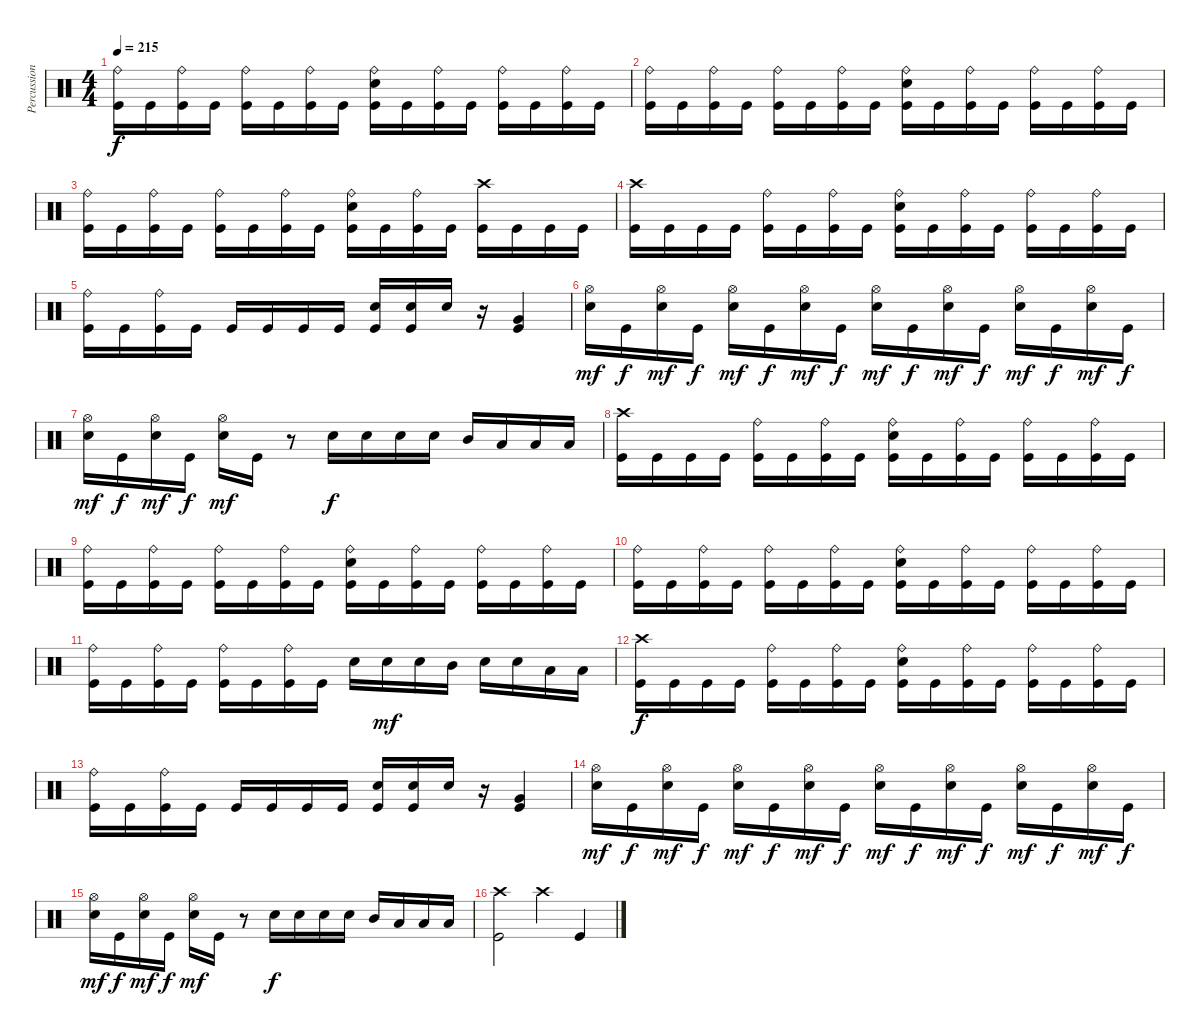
\track ("Percussion" "Percussion") {instrument percussion}
\staff {score}
\articulation defaults
\ts (4 4)
\tempo 215
\clef neutral
\ks c
("Ride (bell)" "Kick (hit)").16{dy f} "Kick (hit)".16 ("Ride (bell)" "Kick (hit)").16 "Kick (hit)".16 ("Ride (bell)" "Kick (hit)").16 "Kick (hit)".16 ("Ride (bell)" "Kick (hit)").16 "Kick (hit)".16 ("Ride (bell)" "Electric Snare (hit)" "Kick (hit)").16 "Kick (hit)".16 ("Ride (bell)" "Kick (hit)").16 "Kick (hit)".16 ("Ride (bell)" "Kick (hit)").16 "Kick (hit)".16 ("Ride (bell)" "Kick (hit)").16 "Kick (hit)".16 |
("Ride (bell)" "Kick (hit)").16 "Kick (hit)".16 ("Ride (bell)" "Kick (hit)").16 "Kick (hit)".16 ("Ride (bell)" "Kick (hit)").16 "Kick (hit)".16 ("Ride (bell)" "Kick (hit)").16 "Kick (hit)".16 ("Ride (bell)" "Electric Snare (hit)" "Kick (hit)").16 "Kick (hit)".16 ("Ride (bell)" "Kick (hit)").16 "Kick (hit)".16 ("Ride (bell)" "Kick (hit)").16 "Kick (hit)".16 ("Ride (bell)" "Kick (hit)").16 "Kick (hit)".16 |
("Ride (bell)" "Kick (hit)").16 "Kick (hit)".16 ("Ride (bell)" "Kick (hit)").16 "Kick (hit)".16 ("Ride (bell)" "Kick (hit)").16 "Kick (hit)".16 ("Ride (bell)" "Kick (hit)").16 "Kick (hit)".16 ("Ride (bell)" "Electric Snare (hit)" "Kick (hit)").16 "Kick (hit)".16 ("Ride (bell)" "Kick (hit)").16 "Kick (hit)".16 ("Crash high (hit)" "Kick (hit)").16 "Kick (hit)".16 "Kick (hit)".16 "Kick (hit)".16 |
("Crash high (hit)" "Kick (hit)").16 "Kick (hit)".16 "Kick (hit)".16 "Kick (hit)".16 ("Ride (bell)" "Kick (hit)").16 "Kick (hit)".16 ("Ride (bell)" "Kick (hit)").16 "Kick (hit)".16 ("Ride (bell)" "Electric Snare (hit)" "Kick (hit)").16 "Kick (hit)".16 ("Ride (bell)" "Kick (hit)").16 "Kick (hit)".16 ("Ride (bell)" "Kick (hit)").16 "Kick (hit)".16 ("Ride (bell)" "Kick (hit)").16 "Kick (hit)".16 |
("Ride (bell)" "Kick (hit)").16 "Kick (hit)".16 ("Ride (bell)" "Kick (hit)").16 "Kick (hit)".16 "Kick (hit)".16 "Kick (hit)".16 "Kick (hit)".16 "Kick (hit)".16 ("Electric Snare (hit)" "Kick (hit)").16 ("Electric Snare (hit)" "Kick (hit)").16 "Electric Snare (hit)".16 r.16 ("Very Low Tom (hit)" "Kick (hit)").4 |
("Hi-Hat (open)" "Electric Snare (hit)").16{dy mf} "Kick (hit)".16{dy f} ("Hi-Hat (open)" "Electric Snare (hit)").16{dy mf} "Kick (hit)".16{dy f} ("Hi-Hat (open)" "Electric Snare (hit)").16{dy mf} "Kick (hit)".16{dy f} ("Hi-Hat (open)" "Electric Snare (hit)").16{dy mf} "Kick (hit)".16{dy f} ("Hi-Hat (open)" "Electric Snare (hit)").16{dy mf} "Kick (hit)".16{dy f} ("Hi-Hat (open)" "Electric Snare (hit)").16{dy mf} "Kick (hit)".16{dy f} ("Hi-Hat (open)" "Electric Snare (hit)").16{dy mf} "Kick (hit)".16{dy f} ("Hi-Hat (open)" "Electric Snare (hit)").16{dy mf} "Kick (hit)".16{dy f} |
("Hi-Hat (open)" "Electric Snare (hit)").16{dy mf} "Kick (hit)".16{dy f} ("Hi-Hat (open)" "Electric Snare (hit)").16{dy mf} "Kick (hit)".16{dy f} ("Hi-Hat (open)" "Electric Snare (hit)").16{dy mf} "Kick (hit)".16 r.8 "Electric Snare (hit)".16{dy f} "Electric Snare (hit)".16 "Electric Snare (hit)".16 "Electric Snare (hit)".16 "Mid Tom (hit)".16 "Low Tom (hit)".16 "Low Floor Tom (hit)".16 "Low Floor Tom (hit)".16 |
("Crash high (hit)" "Kick (hit)").16 "Kick (hit)".16 "Kick (hit)".16 "Kick (hit)".16 ("Ride (bell)" "Kick (hit)").16 "Kick (hit)".16 ("Ride (bell)" "Kick (hit)").16 "Kick (hit)".16 ("Ride (bell)" "Electric Snare (hit)" "Kick (hit)").16 "Kick (hit)".16 ("Ride (bell)" "Kick (hit)").16 "Kick (hit)".16 ("Ride (bell)" "Kick (hit)").16 "Kick (hit)".16 ("Ride (bell)" "Kick (hit)").16 "Kick (hit)".16 |
("Ride (bell)" "Kick (hit)").16 "Kick (hit)".16 ("Ride (bell)" "Kick (hit)").16 "Kick (hit)".16 ("Ride (bell)" "Kick (hit)").16 "Kick (hit)".16 ("Ride (bell)" "Kick (hit)").16 "Kick (hit)".16 ("Ride (bell)" "Electric Snare (hit)" "Kick (hit)").16 "Kick (hit)".16 ("Ride (bell)" "Kick (hit)").16 "Kick (hit)".16 ("Ride (bell)" "Kick (hit)").16 "Kick (hit)".16 ("Ride (bell)" "Kick (hit)").16 "Kick (hit)".16 |
("Ride (bell)" "Kick (hit)").16 "Kick (hit)".16 ("Ride (bell)" "Kick (hit)").16 "Kick (hit)".16 ("Ride (bell)" "Kick (hit)").16 "Kick (hit)".16 ("Ride (bell)" "Kick (hit)").16 "Kick (hit)".16 ("Ride (bell)" "Electric Snare (hit)" "Kick (hit)").16 "Kick (hit)".16 ("Ride (bell)" "Kick (hit)").16 "Kick (hit)".16 ("Ride (bell)" "Kick (hit)").16 "Kick (hit)".16 ("Ride (bell)" "Kick (hit)").16 "Kick (hit)".16 |
("Ride (bell)" "Kick (hit)").16 "Kick (hit)".16 ("Ride (bell)" "Kick (hit)").16 "Kick (hit)".16 ("Ride (bell)" "Kick (hit)").16 "Kick (hit)".16 ("Ride (bell)" "Kick (hit)").16 "Kick (hit)".16 "Electric Snare (hit)".16 "Electric Snare (hit)".16{dy mf} "Electric Snare (hit)".16 "Mid Tom (hit)".16 "Electric Snare (hit)".16 "Electric Snare (hit)".16 "Low Floor Tom (hit)".16 "Low Floor Tom (hit)".16 |
("Crash high (hit)" "Kick (hit)").16{dy f} "Kick (hit)".16 "Kick (hit)".16 "Kick (hit)".16 ("Ride (bell)" "Kick (hit)").16 "Kick (hit)".16 ("Ride (bell)" "Kick (hit)").16 "Kick (hit)".16 ("Ride (bell)" "Electric Snare (hit)" "Kick (hit)").16 "Kick (hit)".16 ("Ride (bell)" "Kick (hit)").16 "Kick (hit)".16 ("Ride (bell)" "Kick (hit)").16 "Kick (hit)".16 ("Ride (bell)" "Kick (hit)").16 "Kick (hit)".16 |
("Ride (bell)" "Kick (hit)").16 "Kick (hit)".16 ("Ride (bell)" "Kick (hit)").16 "Kick (hit)".16 "Kick (hit)".16 "Kick (hit)".16 "Kick (hit)".16 "Kick (hit)".16 ("Electric Snare (hit)" "Kick (hit)").16 ("Electric Snare (hit)" "Kick (hit)").16 "Electric Snare (hit)".16 r.16 ("Very Low Tom (hit)" "Kick (hit)").4 |
("Hi-Hat (open)" "Electric Snare (hit)").16{dy mf} "Kick (hit)".16{dy f} ("Hi-Hat (open)" "Electric Snare (hit)").16{dy mf} "Kick (hit)".16{dy f} ("Hi-Hat (open)" "Electric Snare (hit)").16{dy mf} "Kick (hit)".16{dy f} ("Hi-Hat (open)" "Electric Snare (hit)").16{dy mf} "Kick (hit)".16{dy f} ("Hi-Hat (open)" "Electric Snare (hit)").16{dy mf} "Kick (hit)".16{dy f} ("Hi-Hat (open)" "Electric Snare (hit)").16{dy mf} "Kick (hit)".16{dy f} ("Hi-Hat (open)" "Electric Snare (hit)").16{dy mf} "Kick (hit)".16{dy f} ("Hi-Hat (open)" "Electric Snare (hit)").16{dy mf} "Kick (hit)".16{dy f} |
("Hi-Hat (open)" "Electric Snare (hit)").16{dy mf} "Kick (hit)".16{dy f} ("Hi-Hat (open)" "Electric Snare (hit)").16{dy mf} "Kick (hit)".16{dy f} ("Hi-Hat (open)" "Electric Snare (hit)").16{dy mf} "Kick (hit)".16 r.8 "Electric Snare (hit)".16{dy f} "Electric Snare (hit)".16 "Electric Snare (hit)".16 "Electric Snare (hit)".16 "Mid Tom (hit)".16 "Low Tom (hit)".16 "Low Floor Tom (hit)".16 "Low Floor Tom (hit)".16 |
("Crash high (hit)" "Kick (hit)").2 "Crash high (hit)".4 "Kick (hit)".4
